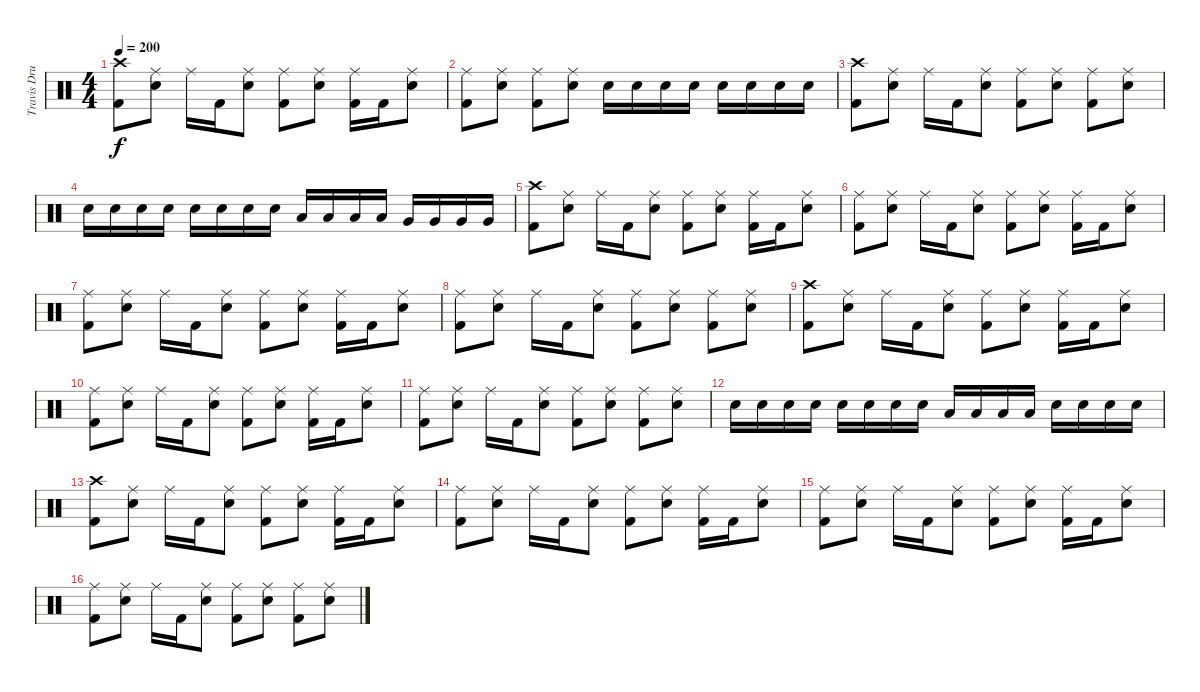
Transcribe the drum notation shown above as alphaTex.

\track ("Travis Drums" "Travis Dru") {instrument percussion}
\staff {score}
\articulation defaults
\ts (4 4)
\tempo 200
\clef neutral
\ks c
("Crash high (hit)" "Kick (hit) 2").8{dy f} ("Ride (middle)" "Electric Snare (hit)").8 "Ride (middle)".16 "Kick (hit) 2".16 ("Ride (middle)" "Electric Snare (hit)").8 ("Ride (middle)" "Kick (hit) 2").8 ("Ride (middle)" "Electric Snare (hit)").8 ("Ride (middle)" "Kick (hit) 2").16 "Kick (hit) 2".16 ("Ride (middle)" "Electric Snare (hit)").8 |
("Ride (middle)" "Kick (hit) 2").8 ("Ride (middle)" "Electric Snare (hit)").8 ("Ride (middle)" "Kick (hit) 2").8 ("Ride (middle)" "Electric Snare (hit)").8 "Electric Snare (hit)".16 "Electric Snare (hit)".16 "Electric Snare (hit)".16 "Electric Snare (hit)".16 "Electric Snare (hit)".16 "Electric Snare (hit)".16 "Electric Snare (hit)".16 "Electric Snare (hit)".16 |
("Crash high (hit)" "Kick (hit) 2").8 ("Ride (middle)" "Electric Snare (hit)").8 "Ride (middle)".16 "Kick (hit) 2".16 ("Ride (middle)" "Electric Snare (hit)").8 ("Ride (middle)" "Kick (hit) 2").8 ("Ride (middle)" "Electric Snare (hit)").8 ("Ride (middle)" "Kick (hit) 2").8 ("Ride (middle)" "Electric Snare (hit)").8 |
"Electric Snare (hit)".16 "Electric Snare (hit)".16 "Electric Snare (hit)".16 "Electric Snare (hit)".16 "Electric Snare (hit)".16 "Electric Snare (hit)".16 "Electric Snare (hit)".16 "Electric Snare (hit)".16 "Low Tom (hit)".16 "Low Tom (hit)".16 "Low Tom (hit)".16 "Low Tom (hit)".16 "Very Low Tom (hit)".16 "Very Low Tom (hit)".16 "Very Low Tom (hit)".16 "Very Low Tom (hit)".16 |
("Crash high (hit)" "Kick (hit) 2").8 ("Ride (middle)" "Electric Snare (hit)").8 "Ride (middle)".16 "Kick (hit) 2".16 ("Ride (middle)" "Electric Snare (hit)").8 ("Ride (middle)" "Kick (hit) 2").8 ("Ride (middle)" "Electric Snare (hit)").8 ("Ride (middle)" "Kick (hit) 2").16 "Kick (hit) 2".16 ("Ride (middle)" "Electric Snare (hit)").8 |
("Ride (middle)" "Kick (hit) 2").8 ("Ride (middle)" "Electric Snare (hit)").8 "Ride (middle)".16 "Kick (hit) 2".16 ("Ride (middle)" "Electric Snare (hit)").8 ("Ride (middle)" "Kick (hit) 2").8 ("Ride (middle)" "Electric Snare (hit)").8 ("Ride (middle)" "Kick (hit) 2").16 "Kick (hit) 2".16 ("Ride (middle)" "Electric Snare (hit)").8 |
("Ride (middle)" "Kick (hit) 2").8 ("Ride (middle)" "Electric Snare (hit)").8 "Ride (middle)".16 "Kick (hit) 2".16 ("Ride (middle)" "Electric Snare (hit)").8 ("Ride (middle)" "Kick (hit) 2").8 ("Ride (middle)" "Electric Snare (hit)").8 ("Ride (middle)" "Kick (hit) 2").16 "Kick (hit) 2".16 ("Ride (middle)" "Electric Snare (hit)").8 |
("Ride (middle)" "Kick (hit) 2").8 ("Ride (middle)" "Electric Snare (hit)").8 "Ride (middle)".16 "Kick (hit) 2".16 ("Ride (middle)" "Electric Snare (hit)").8 ("Ride (middle)" "Kick (hit) 2").8 ("Ride (middle)" "Electric Snare (hit)").8 ("Ride (middle)" "Kick (hit) 2").8 ("Ride (middle)" "Electric Snare (hit)").8 |
("Crash high (hit)" "Kick (hit) 2").8 ("Ride (middle)" "Electric Snare (hit)").8 "Ride (middle)".16 "Kick (hit) 2".16 ("Ride (middle)" "Electric Snare (hit)").8 ("Ride (middle)" "Kick (hit) 2").8 ("Ride (middle)" "Electric Snare (hit)").8 ("Ride (middle)" "Kick (hit) 2").16 "Kick (hit) 2".16 ("Ride (middle)" "Electric Snare (hit)").8 |
("Ride (middle)" "Kick (hit) 2").8 ("Ride (middle)" "Electric Snare (hit)").8 "Ride (middle)".16 "Kick (hit) 2".16 ("Ride (middle)" "Electric Snare (hit)").8 ("Ride (middle)" "Kick (hit) 2").8 ("Ride (middle)" "Electric Snare (hit)").8 ("Ride (middle)" "Kick (hit) 2").16 "Kick (hit) 2".16 ("Ride (middle)" "Electric Snare (hit)").8 |
("Ride (middle)" "Kick (hit) 2").8 ("Ride (middle)" "Electric Snare (hit)").8 "Ride (middle)".16 "Kick (hit) 2".16 ("Ride (middle)" "Electric Snare (hit)").8 ("Ride (middle)" "Kick (hit) 2").8 ("Ride (middle)" "Electric Snare (hit)").8 ("Ride (middle)" "Kick (hit) 2").8 ("Ride (middle)" "Electric Snare (hit)").8 |
"Electric Snare (hit)".16 "Electric Snare (hit)".16 "Electric Snare (hit)".16 "Electric Snare (hit)".16 "Electric Snare (hit)".16 "Electric Snare (hit)".16 "Electric Snare (hit)".16 "Electric Snare (hit)".16 "Low Tom (hit)".16 "Low Tom (hit)".16 "Low Tom (hit)".16 "Low Tom (hit)".16 "Electric Snare (hit)".16 "Electric Snare (hit)".16 "Electric Snare (hit)".16 "Electric Snare (hit)".16 |
("Crash high (hit)" "Kick (hit) 2").8 ("Ride (middle)" "Electric Snare (hit)").8 "Ride (middle)".16 "Kick (hit) 2".16 ("Ride (middle)" "Electric Snare (hit)").8 ("Ride (middle)" "Kick (hit) 2").8 ("Ride (middle)" "Electric Snare (hit)").8 ("Ride (middle)" "Kick (hit) 2").16 "Kick (hit) 2".16 ("Ride (middle)" "Electric Snare (hit)").8 |
("Ride (middle)" "Kick (hit) 2").8 ("Ride (middle)" "Electric Snare (hit)").8 "Ride (middle)".16 "Kick (hit) 2".16 ("Ride (middle)" "Electric Snare (hit)").8 ("Ride (middle)" "Kick (hit) 2").8 ("Ride (middle)" "Electric Snare (hit)").8 ("Ride (middle)" "Kick (hit) 2").16 "Kick (hit) 2".16 ("Ride (middle)" "Electric Snare (hit)").8 |
("Ride (middle)" "Kick (hit) 2").8 ("Ride (middle)" "Electric Snare (hit)").8 "Ride (middle)".16 "Kick (hit) 2".16 ("Ride (middle)" "Electric Snare (hit)").8 ("Ride (middle)" "Kick (hit) 2").8 ("Ride (middle)" "Electric Snare (hit)").8 ("Ride (middle)" "Kick (hit) 2").16 "Kick (hit) 2".16 ("Ride (middle)" "Electric Snare (hit)").8 |
("Ride (middle)" "Kick (hit) 2").8 ("Ride (middle)" "Electric Snare (hit)").8 "Ride (middle)".16 "Kick (hit) 2".16 ("Ride (middle)" "Electric Snare (hit)").8 ("Ride (middle)" "Kick (hit) 2").8 ("Ride (middle)" "Electric Snare (hit)").8 ("Ride (middle)" "Kick (hit) 2").8 ("Ride (middle)" "Electric Snare (hit)").8
